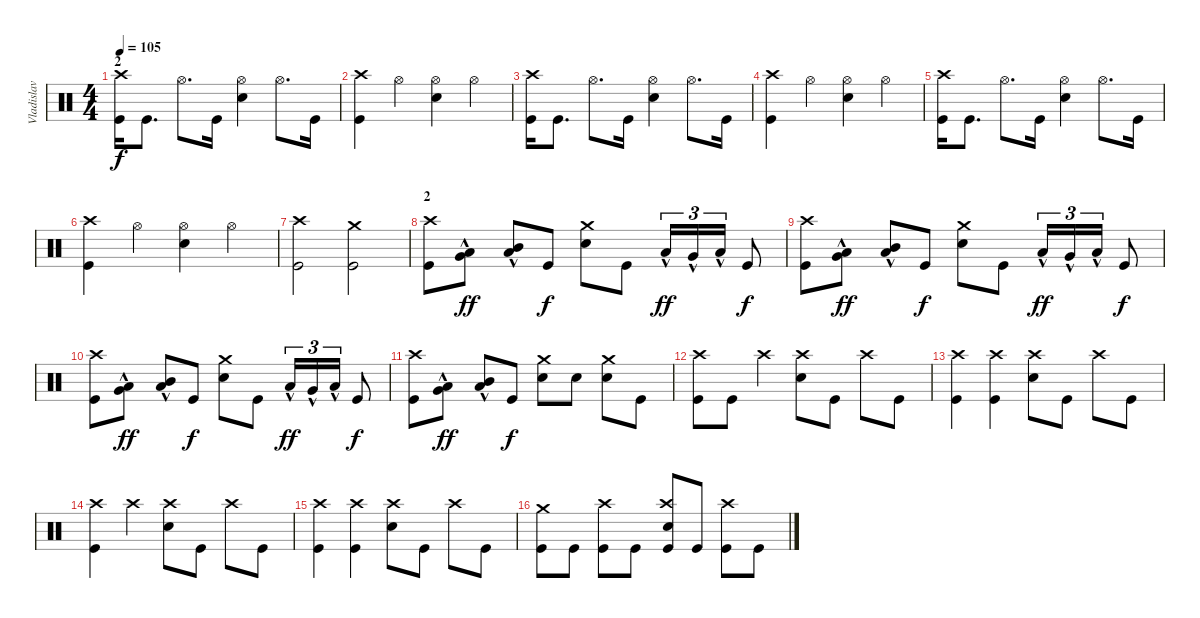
\track ("Vladislav Ulasevish" "Vladislav ") {instrument percussion}
\staff {score}
\articulation defaults
\ts (4 4)
\section ("" "2")
\tempo 105
\clef neutral
\ks c
("Kick (hit)" "Crash high (hit)").16{dy f} "Kick (hit)".8{d} "Hi-Hat (open)".8{d} "Kick (hit)".16 ("Snare (hit) 2" "Hi-Hat (open)").4 "Hi-Hat (open)".8{d} "Kick (hit)".16 |
("Kick (hit)" "Crash high (hit)").4 "Hi-Hat (open)".4 ("Snare (hit) 2" "Hi-Hat (open)").4 "Hi-Hat (open)".4 |
("Kick (hit)" "Crash high (hit)").16 "Kick (hit)".8{d} "Hi-Hat (open)".8{d} "Kick (hit)".16 ("Snare (hit) 2" "Hi-Hat (open)").4 "Hi-Hat (open)".8{d} "Kick (hit)".16 |
("Kick (hit)" "Crash high (hit)").4 "Hi-Hat (open)".4 ("Snare (hit) 2" "Hi-Hat (open)").4 "Hi-Hat (open)".4 |
("Kick (hit)" "Crash high (hit)").16 "Kick (hit)".8{d} "Hi-Hat (open)".8{d} "Kick (hit)".16 ("Snare (hit) 2" "Hi-Hat (open)").4 "Hi-Hat (open)".8{d} "Kick (hit)".16 |
("Kick (hit)" "Crash high (hit)").4 "Hi-Hat (open)".4 ("Snare (hit) 2" "Hi-Hat (open)").4 "Hi-Hat (open)".4 |
("Kick (hit)" "Crash high (hit)").2 ("Kick (hit)" "Crash medium (hit)").2 |
\section ("" "2")
("Kick (hit)" "Crash high (hit)").8 ("Low Tom (hit)"{hac} "Very Low Tom (hit)"{hac}).8{dy ff} ("Low Tom (hit)"{hac} "Mid Tom (hit)"{hac}).8 "Kick (hit)".8{dy f} ("Snare (hit) 2" "Crash medium (hit)").8 "Kick (hit)".8 "Low Tom (hit)"{hac}.16{tu (3 2) dy ff} "Very Low Tom (hit)"{hac}.16{tu (3 2)} "Low Floor Tom (hit)"{hac}.16{tu (3 2)} "Kick (hit)".8{dy f} |
("Kick (hit)" "Crash high (hit)").8 ("Low Tom (hit)"{hac} "Very Low Tom (hit)"{hac}).8{dy ff} ("Low Tom (hit)"{hac} "Mid Tom (hit)"{hac}).8 "Kick (hit)".8{dy f} ("Snare (hit) 2" "Crash medium (hit)").8 "Kick (hit)".8 "Low Tom (hit)"{hac}.16{tu (3 2) dy ff} "Very Low Tom (hit)"{hac}.16{tu (3 2)} "Low Floor Tom (hit)"{hac}.16{tu (3 2)} "Kick (hit)".8{dy f} |
("Kick (hit)" "Crash high (hit)").8 ("Low Tom (hit)"{hac} "Very Low Tom (hit)"{hac}).8{dy ff} ("Low Tom (hit)"{hac} "Mid Tom (hit)"{hac}).8 "Kick (hit)".8{dy f} ("Snare (hit) 2" "Crash medium (hit)").8 "Kick (hit)".8 "Low Tom (hit)"{hac}.16{tu (3 2) dy ff} "Very Low Tom (hit)"{hac}.16{tu (3 2)} "Low Floor Tom (hit)"{hac}.16{tu (3 2)} "Kick (hit)".8{dy f} |
("Kick (hit)" "Crash high (hit)").8 ("Low Tom (hit)"{hac} "Very Low Tom (hit)"{hac}).8{dy ff} ("Low Tom (hit)"{hac} "Mid Tom (hit)"{hac}).8 "Kick (hit)".8{dy f} ("Snare (hit) 2" "Crash medium (hit)").8 "Snare (hit) 2".8 ("Snare (hit) 2" "Crash medium (hit)").8 "Kick (hit)".8 |
("Kick (hit)" "Crash high (hit)").8 "Kick (hit)".8 "Crash high (hit)".4 ("Snare (hit) 2" "Crash high (hit)").8 "Kick (hit)".8 "Crash high (hit)".8 "Kick (hit)".8 |
("Kick (hit)" "Crash high (hit)").4 ("Kick (hit)" "Crash high (hit)").4 ("Snare (hit) 2" "Crash high (hit)").8 "Kick (hit)".8 "Crash high (hit)".8 "Kick (hit)".8 |
("Kick (hit)" "Crash high (hit)").4 "Crash high (hit)".4 ("Snare (hit) 2" "Crash high (hit)").8 "Kick (hit)".8 "Crash high (hit)".8 "Kick (hit)".8 |
("Kick (hit)" "Crash high (hit)").4 ("Kick (hit)" "Crash high (hit)").4 ("Snare (hit) 2" "Crash high (hit)").8 "Kick (hit)".8 "Crash high (hit)".8 "Kick (hit)".8 |
("Kick (hit)" "Crash medium (hit)").8 "Kick (hit)".8 ("Kick (hit)" "Crash high (hit)").8 "Kick (hit)".8 ("Kick (hit)" "Crash high (hit)" "Snare (hit) 2").8 "Kick (hit)".8 ("Kick (hit)" "Crash high (hit)").8 "Kick (hit)".8
